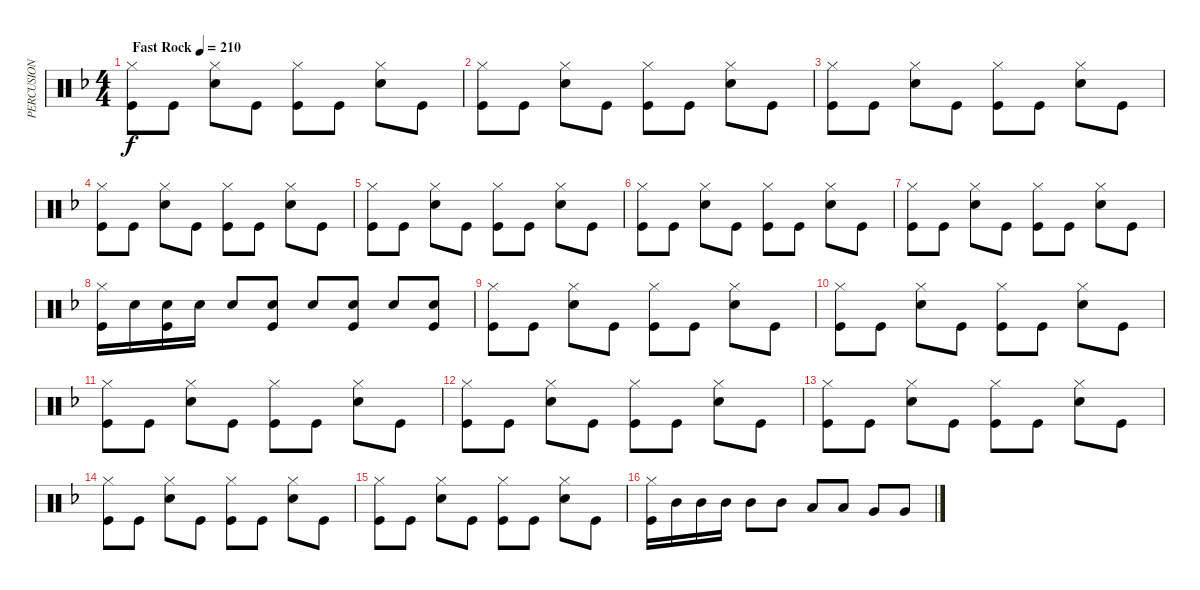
\track ("PERCUSION" "PERCUSION") {instrument percussion}
\staff {score}
\articulation defaults
\ts (4 4)
\tempo (210 "Fast Rock")
\clef neutral
\ks f
("Hi-Hat (closed)" "Kick (hit)").8{dy f} "Kick (hit)".8 ("Hi-Hat (closed)" "Snare (hit) 2").8 "Kick (hit)".8 ("Hi-Hat (closed)" "Kick (hit)").8 "Kick (hit)".8 ("Hi-Hat (closed)" "Snare (hit) 2").8 "Kick (hit)".8 |
("Hi-Hat (closed)" "Kick (hit)").8 "Kick (hit)".8 ("Hi-Hat (closed)" "Snare (hit) 2").8 "Kick (hit)".8 ("Hi-Hat (closed)" "Kick (hit)").8 "Kick (hit)".8 ("Hi-Hat (closed)" "Snare (hit) 2").8 "Kick (hit)".8 |
("Hi-Hat (closed)" "Kick (hit)").8 "Kick (hit)".8 ("Hi-Hat (closed)" "Snare (hit) 2").8 "Kick (hit)".8 ("Hi-Hat (closed)" "Kick (hit)").8 "Kick (hit)".8 ("Hi-Hat (closed)" "Snare (hit) 2").8 "Kick (hit)".8 |
("Hi-Hat (closed)" "Kick (hit)").8 "Kick (hit)".8 ("Hi-Hat (closed)" "Snare (hit) 2").8 "Kick (hit)".8 ("Hi-Hat (closed)" "Kick (hit)").8 "Kick (hit)".8 ("Hi-Hat (closed)" "Snare (hit) 2").8 "Kick (hit)".8 |
("Hi-Hat (closed)" "Kick (hit)").8 "Kick (hit)".8 ("Hi-Hat (closed)" "Snare (hit) 2").8 "Kick (hit)".8 ("Hi-Hat (closed)" "Kick (hit)").8 "Kick (hit)".8 ("Hi-Hat (closed)" "Snare (hit) 2").8 "Kick (hit)".8 |
("Hi-Hat (closed)" "Kick (hit)").8 "Kick (hit)".8 ("Hi-Hat (closed)" "Snare (hit) 2").8 "Kick (hit)".8 ("Hi-Hat (closed)" "Kick (hit)").8 "Kick (hit)".8 ("Hi-Hat (closed)" "Snare (hit) 2").8 "Kick (hit)".8 |
("Hi-Hat (closed)" "Kick (hit)").8 "Kick (hit)".8 ("Hi-Hat (closed)" "Snare (hit) 2").8 "Kick (hit)".8 ("Hi-Hat (closed)" "Kick (hit)").8 "Kick (hit)".8 ("Hi-Hat (closed)" "Snare (hit) 2").8 "Kick (hit)".8 |
("Hi-Hat (closed)" "Kick (hit)").16 "Snare (hit) 2".16 ("Snare (hit) 2" "Kick (hit)").16 "Snare (hit) 2".16 "Snare (hit) 2".8 ("Snare (hit) 2" "Kick (hit)").8 "Snare (hit) 2".8 ("Snare (hit) 2" "Kick (hit)").8 "Snare (hit) 2".8 ("Snare (hit) 2" "Kick (hit)").8 |
("Hi-Hat (closed)" "Kick (hit)").8 "Kick (hit)".8 ("Hi-Hat (closed)" "Snare (hit) 2").8 "Kick (hit)".8 ("Hi-Hat (closed)" "Kick (hit)").8 "Kick (hit)".8 ("Hi-Hat (closed)" "Snare (hit) 2").8 "Kick (hit)".8 |
("Hi-Hat (closed)" "Kick (hit)").8 "Kick (hit)".8 ("Hi-Hat (closed)" "Snare (hit) 2").8 "Kick (hit)".8 ("Hi-Hat (closed)" "Kick (hit)").8 "Kick (hit)".8 ("Hi-Hat (closed)" "Snare (hit) 2").8 "Kick (hit)".8 |
("Hi-Hat (closed)" "Kick (hit)").8 "Kick (hit)".8 ("Hi-Hat (closed)" "Snare (hit) 2").8 "Kick (hit)".8 ("Hi-Hat (closed)" "Kick (hit)").8 "Kick (hit)".8 ("Hi-Hat (closed)" "Snare (hit) 2").8 "Kick (hit)".8 |
("Hi-Hat (closed)" "Kick (hit)").8 "Kick (hit)".8 ("Hi-Hat (closed)" "Snare (hit) 2").8 "Kick (hit)".8 ("Hi-Hat (closed)" "Kick (hit)").8 "Kick (hit)".8 ("Hi-Hat (closed)" "Snare (hit) 2").8 "Kick (hit)".8 |
("Hi-Hat (closed)" "Kick (hit)").8 "Kick (hit)".8 ("Hi-Hat (closed)" "Snare (hit) 2").8 "Kick (hit)".8 ("Hi-Hat (closed)" "Kick (hit)").8 "Kick (hit)".8 ("Hi-Hat (closed)" "Snare (hit) 2").8 "Kick (hit)".8 |
("Hi-Hat (closed)" "Kick (hit)").8 "Kick (hit)".8 ("Hi-Hat (closed)" "Snare (hit) 2").8 "Kick (hit)".8 ("Hi-Hat (closed)" "Kick (hit)").8 "Kick (hit)".8 ("Hi-Hat (closed)" "Snare (hit) 2").8 "Kick (hit)".8 |
("Hi-Hat (closed)" "Kick (hit)").8 "Kick (hit)".8 ("Hi-Hat (closed)" "Snare (hit) 2").8 "Kick (hit)".8 ("Hi-Hat (closed)" "Kick (hit)").8 "Kick (hit)".8 ("Hi-Hat (closed)" "Snare (hit) 2").8 "Kick (hit)".8 |
("Hi-Hat (closed)" "Kick (hit)").16 "Mid Tom (hit)".16 "Mid Tom (hit)".16 "Mid Tom (hit)".16 "Mid Tom (hit)".8 "Mid Tom (hit)".8 "Low Tom (hit)".8 "Low Tom (hit)".8 "Very Low Tom (hit)".8 "Very Low Tom (hit)".8
